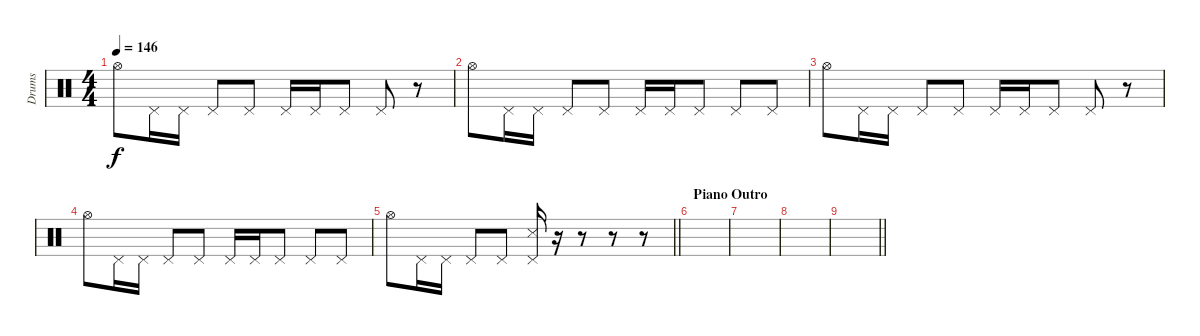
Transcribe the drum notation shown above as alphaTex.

\track ("Drums" "Drums") {instrument percussion}
\staff {score}
\articulation defaults
\ts (4 4)
\tempo 146
\clef neutral
\ks c "Hi-Hat (open)".8{dy f} "Pedal Hi-Hat (hit)".16 "Pedal Hi-Hat (hit)".16 "Pedal Hi-Hat (hit)".8 "Pedal Hi-Hat (hit)".8 "Pedal Hi-Hat (hit)".16 "Pedal Hi-Hat (hit)".16 "Pedal Hi-Hat (hit)".8 "Pedal Hi-Hat (hit)".8
r.8 |
"Hi-Hat (open)".8 "Pedal Hi-Hat (hit)".16 "Pedal Hi-Hat (hit)".16 "Pedal Hi-Hat (hit)".8 "Pedal Hi-Hat (hit)".8 "Pedal Hi-Hat (hit)".16 "Pedal Hi-Hat (hit)".16 "Pedal Hi-Hat (hit)".8 "Pedal Hi-Hat (hit)".8 "Pedal Hi-Hat (hit)".8 |
"Hi-Hat (open)".8 "Pedal Hi-Hat (hit)".16 "Pedal Hi-Hat (hit)".16 "Pedal Hi-Hat (hit)".8 "Pedal Hi-Hat (hit)".8 "Pedal Hi-Hat (hit)".16 "Pedal Hi-Hat (hit)".16 "Pedal Hi-Hat (hit)".8 "Pedal Hi-Hat (hit)".8 r.8 |
"Hi-Hat (open)".8 "Pedal Hi-Hat (hit)".16 "Pedal Hi-Hat (hit)".16 "Pedal Hi-Hat (hit)".8 "Pedal Hi-Hat (hit)".8 "Pedal Hi-Hat (hit)".16 "Pedal Hi-Hat (hit)".16 "Pedal Hi-Hat (hit)".8 "Pedal Hi-Hat (hit)".8 "Pedal Hi-Hat (hit)".8 |
\barLineRight lightlight "Hi-Hat (open)".8 "Pedal Hi-Hat (hit)".16 "Pedal Hi-Hat (hit)".16 "Pedal Hi-Hat (hit)".8 "Pedal Hi-Hat (hit)".8
("Pedal Hi-Hat (hit)" "Snare (side stick) 3").16 r.16 r.8 r.8 r.8 |
\section ("" "Piano Outro")
|
|
|
\barLineRight lightlight
